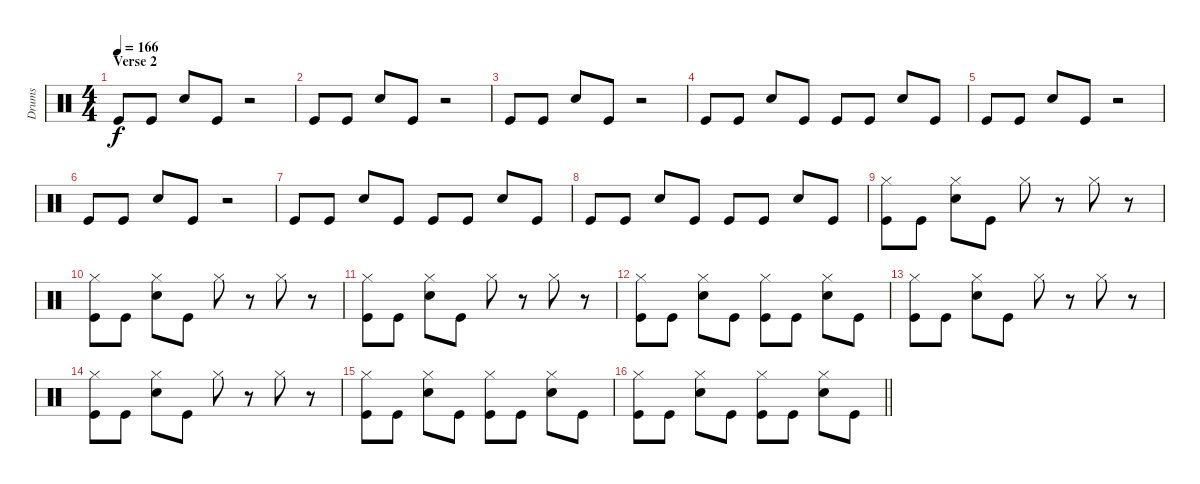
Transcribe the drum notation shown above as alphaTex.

\track ("Drums" "Drums") {instrument percussion}
\staff {score}
\articulation defaults
\ts (4 4)
\section ("" "Verse 2")
\tempo 166
\clef neutral
\ks c "Kick (hit)".8{dy f} "Kick (hit)".8 "Electric Snare (hit)".8 "Kick (hit)".8
r.2 |
"Kick (hit)".8 "Kick (hit)".8 "Electric Snare (hit)".8 "Kick (hit)".8 r.2 |
"Kick (hit)".8 "Kick (hit)".8 "Electric Snare (hit)".8 "Kick (hit)".8 r.2 |
"Kick (hit)".8 "Kick (hit)".8 "Electric Snare (hit)".8 "Kick (hit)".8 "Kick (hit)".8 "Kick (hit)".8 "Electric Snare (hit)".8 "Kick (hit)".8 |
"Kick (hit)".8 "Kick (hit)".8 "Electric Snare (hit)".8 "Kick (hit)".8 r.2 |
"Kick (hit)".8 "Kick (hit)".8 "Electric Snare (hit)".8 "Kick (hit)".8 r.2 |
"Kick (hit)".8 "Kick (hit)".8 "Electric Snare (hit)".8 "Kick (hit)".8 "Kick (hit)".8 "Kick (hit)".8 "Electric Snare (hit)".8 "Kick (hit)".8 |
"Kick (hit)".8 "Kick (hit)".8 "Electric Snare (hit)".8 "Kick (hit)".8 "Kick (hit)".8 "Kick (hit)".8 "Electric Snare (hit)".8 "Kick (hit)".8 |
("Hi-Hat (closed)" "Kick (hit)").8 "Kick (hit)".8 ("Hi-Hat (closed)" "Electric Snare (hit)").8 "Kick (hit)".8 "Hi-Hat (closed)".8 r.8 "Hi-Hat (closed)".8 r.8 |
("Hi-Hat (closed)" "Kick (hit)").8 "Kick (hit)".8 ("Hi-Hat (closed)" "Electric Snare (hit)").8 "Kick (hit)".8 "Hi-Hat (closed)".8 r.8 "Hi-Hat (closed)".8 r.8 |
("Hi-Hat (closed)" "Kick (hit)").8 "Kick (hit)".8 ("Hi-Hat (closed)" "Electric Snare (hit)").8 "Kick (hit)".8 "Hi-Hat (closed)".8 r.8 "Hi-Hat (closed)".8 r.8 |
("Hi-Hat (closed)" "Kick (hit)").8 "Kick (hit)".8 ("Hi-Hat (closed)" "Electric Snare (hit)").8 "Kick (hit)".8 ("Hi-Hat (closed)" "Kick (hit)").8 "Kick (hit)".8 ("Hi-Hat (closed)" "Electric Snare (hit)").8 "Kick (hit)".8 |
("Hi-Hat (closed)" "Kick (hit)").8 "Kick (hit)".8 ("Hi-Hat (closed)" "Electric Snare (hit)").8 "Kick (hit)".8 "Hi-Hat (closed)".8 r.8 "Hi-Hat (closed)".8 r.8 |
("Hi-Hat (closed)" "Kick (hit)").8 "Kick (hit)".8 ("Hi-Hat (closed)" "Electric Snare (hit)").8 "Kick (hit)".8 "Hi-Hat (closed)".8 r.8 "Hi-Hat (closed)".8 r.8 |
("Hi-Hat (closed)" "Kick (hit)").8 "Kick (hit)".8 ("Hi-Hat (closed)" "Electric Snare (hit)").8 "Kick (hit)".8 ("Hi-Hat (closed)" "Kick (hit)").8 "Kick (hit)".8 ("Hi-Hat (closed)" "Electric Snare (hit)").8 "Kick (hit)".8 |
\barLineRight lightlight
("Hi-Hat (closed)" "Kick (hit)").8 "Kick (hit)".8 ("Hi-Hat (closed)" "Electric Snare (hit)").8 "Kick (hit)".8 ("Hi-Hat (closed)" "Kick (hit)").8 "Kick (hit)".8 ("Hi-Hat (closed)" "Electric Snare (hit)").8 "Kick (hit)".8
